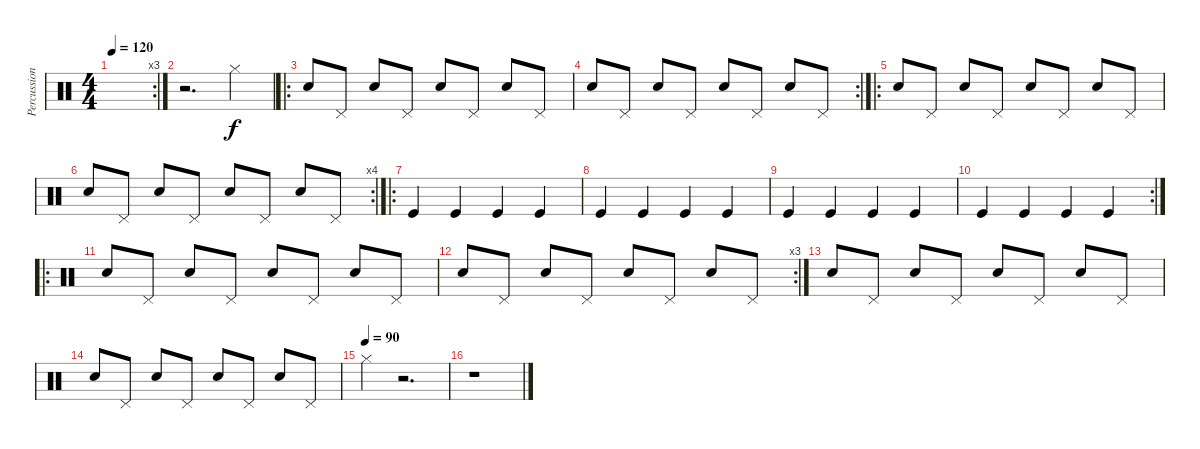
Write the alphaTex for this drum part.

\track ("Percussions" "Percussion") {instrument percussion}
\staff {score}
\articulation defaults
\rc 3
\ts (4 4)
\tempo 120
\clef neutral
\ks c
|
r.2{d} "Hi-Hat (closed)".4 |
\ro "Snare (hit) 2".8 "Pedal Hi-Hat (hit)".8 "Snare (hit) 2".8 "Pedal Hi-Hat (hit)".8 "Snare (hit) 2".8 "Pedal Hi-Hat (hit)".8 "Snare (hit) 2".8 "Pedal Hi-Hat (hit)".8
|
\rc 2 "Snare (hit) 2".8 "Pedal Hi-Hat (hit)".8 "Snare (hit) 2".8 "Pedal Hi-Hat (hit)".8 "Snare (hit) 2".8 "Pedal Hi-Hat (hit)".8 "Snare (hit) 2".8 "Pedal Hi-Hat (hit)".8
|
\ro "Snare (hit) 2".8 "Pedal Hi-Hat (hit)".8 "Snare (hit) 2".8 "Pedal Hi-Hat (hit)".8 "Snare (hit) 2".8 "Pedal Hi-Hat (hit)".8 "Snare (hit) 2".8 "Pedal Hi-Hat (hit)".8
|
\rc 4 "Snare (hit) 2".8 "Pedal Hi-Hat (hit)".8 "Snare (hit) 2".8 "Pedal Hi-Hat (hit)".8 "Snare (hit) 2".8 "Pedal Hi-Hat (hit)".8 "Snare (hit) 2".8 "Pedal Hi-Hat (hit)".8
|
\ro "Kick (hit)".4 "Kick (hit)".4 "Kick (hit)".4 "Kick (hit)".4
|
"Kick (hit)".4 "Kick (hit)".4 "Kick (hit)".4 "Kick (hit)".4 |
"Kick (hit)".4 "Kick (hit)".4 "Kick (hit)".4 "Kick (hit)".4 |
\rc 2 "Kick (hit)".4 "Kick (hit)".4 "Kick (hit)".4 "Kick (hit)".4
|
\ro "Snare (hit) 2".8 "Pedal Hi-Hat (hit)".8 "Snare (hit) 2".8 "Pedal Hi-Hat (hit)".8 "Snare (hit) 2".8 "Pedal Hi-Hat (hit)".8 "Snare (hit) 2".8 "Pedal Hi-Hat (hit)".8
|
\rc 3 "Snare (hit) 2".8 "Pedal Hi-Hat (hit)".8 "Snare (hit) 2".8 "Pedal Hi-Hat (hit)".8 "Snare (hit) 2".8 "Pedal Hi-Hat (hit)".8 "Snare (hit) 2".8 "Pedal Hi-Hat (hit)".8
|
"Snare (hit) 2".8 "Pedal Hi-Hat (hit)".8 "Snare (hit) 2".8 "Pedal Hi-Hat (hit)".8 "Snare (hit) 2".8 "Pedal Hi-Hat (hit)".8 "Snare (hit) 2".8 "Pedal Hi-Hat (hit)".8 |
"Snare (hit) 2".8 "Pedal Hi-Hat (hit)".8 "Snare (hit) 2".8 "Pedal Hi-Hat (hit)".8 "Snare (hit) 2".8 "Pedal Hi-Hat (hit)".8 "Snare (hit) 2".8 "Pedal Hi-Hat (hit)".8 |
\tempo (90)
"Hi-Hat (closed)".4 r.2{d} |
r.1
